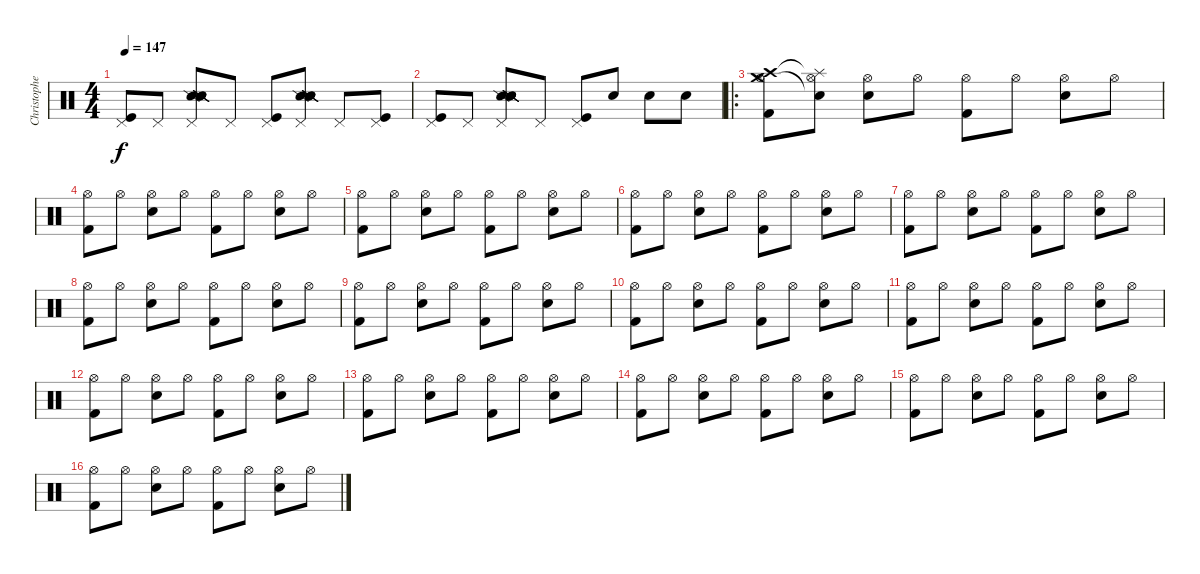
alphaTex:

\track ("Christopher Schneider  (Drums)" "Christophe") {instrument percussion}
\staff {score}
\articulation defaults
\ts (4 4)
\tempo 147
\clef neutral
\ks c
("Pedal Hi-Hat (hit)" "Kick (hit)").8{dy f} "Pedal Hi-Hat (hit)".8 ("Pedal Hi-Hat (hit)" "Snare (side stick) 2" "Snare (side stick) 2" "Snare (side stick) 2" "Snare (side stick) 2" "Snare (side stick) 2").8 "Pedal Hi-Hat (hit)".8 ("Pedal Hi-Hat (hit)" "Kick (hit)").8 ("Pedal Hi-Hat (hit)" "Snare (side stick) 2" "Snare (side stick) 2" "Snare (side stick) 2" "Snare (side stick) 2" "Snare (side stick) 2").8 "Pedal Hi-Hat (hit)".8 ("Pedal Hi-Hat (hit)" "Kick (hit)").8 |
("Pedal Hi-Hat (hit)" "Kick (hit)").8 "Pedal Hi-Hat (hit)".8 ("Pedal Hi-Hat (hit)" "Snare (side stick) 2" "Snare (side stick) 2" "Snare (side stick) 2" "Snare (side stick) 2" "Snare (side stick) 2").8 "Pedal Hi-Hat (hit)".8 ("Pedal Hi-Hat (hit)" "Kick (hit)").8 "Electric Snare (hit)".8 "Electric Snare (hit)".8 "Electric Snare (hit)".8 |
\ro
("Crash high (hit)" "Hi-Hat (open)" "Crash medium (hit)" "Kick (hit) 2").8 ("Splash (hit)"{t} "Hi-Hat (open)" "Snare (hit)"{t}).8 ("Hi-Hat (open)" "Electric Snare (hit)").8 "Hi-Hat (open)".8 ("Hi-Hat (open)" "Kick (hit) 2").8 "Hi-Hat (open)".8 ("Hi-Hat (open)" "Electric Snare (hit)").8 "Hi-Hat (open)".8 |
("Hi-Hat (open)" "Kick (hit) 2").8 "Hi-Hat (open)".8 ("Hi-Hat (open)" "Electric Snare (hit)").8 "Hi-Hat (open)".8 ("Hi-Hat (open)" "Kick (hit) 2").8 "Hi-Hat (open)".8 ("Hi-Hat (open)" "Electric Snare (hit)").8 "Hi-Hat (open)".8 |
("Hi-Hat (open)" "Kick (hit) 2").8 "Hi-Hat (open)".8 ("Hi-Hat (open)" "Electric Snare (hit)").8 "Hi-Hat (open)".8 ("Hi-Hat (open)" "Kick (hit) 2").8 "Hi-Hat (open)".8 ("Hi-Hat (open)" "Electric Snare (hit)").8 "Hi-Hat (open)".8 |
("Hi-Hat (open)" "Kick (hit) 2").8 "Hi-Hat (open)".8 ("Hi-Hat (open)" "Electric Snare (hit)").8 "Hi-Hat (open)".8 ("Hi-Hat (open)" "Kick (hit) 2").8 "Hi-Hat (open)".8 ("Hi-Hat (open)" "Electric Snare (hit)").8 "Hi-Hat (open)".8 |
("Hi-Hat (open)" "Kick (hit) 2").8 "Hi-Hat (open)".8 ("Hi-Hat (open)" "Electric Snare (hit)").8 "Hi-Hat (open)".8 ("Hi-Hat (open)" "Kick (hit) 2").8 "Hi-Hat (open)".8 ("Hi-Hat (open)" "Electric Snare (hit)").8 "Hi-Hat (open)".8 |
("Hi-Hat (open)" "Kick (hit) 2").8 "Hi-Hat (open)".8 ("Hi-Hat (open)" "Electric Snare (hit)").8 "Hi-Hat (open)".8 ("Hi-Hat (open)" "Kick (hit) 2").8 "Hi-Hat (open)".8 ("Hi-Hat (open)" "Electric Snare (hit)").8 "Hi-Hat (open)".8 |
("Hi-Hat (open)" "Kick (hit) 2").8 "Hi-Hat (open)".8 ("Hi-Hat (open)" "Electric Snare (hit)").8 "Hi-Hat (open)".8 ("Hi-Hat (open)" "Kick (hit) 2").8 "Hi-Hat (open)".8 ("Hi-Hat (open)" "Electric Snare (hit)").8 "Hi-Hat (open)".8 |
("Hi-Hat (open)" "Kick (hit) 2").8 "Hi-Hat (open)".8 ("Hi-Hat (open)" "Electric Snare (hit)").8 "Hi-Hat (open)".8 ("Hi-Hat (open)" "Kick (hit) 2").8 "Hi-Hat (open)".8 ("Hi-Hat (open)" "Electric Snare (hit)").8 "Hi-Hat (open)".8 |
("Hi-Hat (open)" "Kick (hit) 2").8 "Hi-Hat (open)".8 ("Hi-Hat (open)" "Electric Snare (hit)").8 "Hi-Hat (open)".8 ("Hi-Hat (open)" "Kick (hit) 2").8 "Hi-Hat (open)".8 ("Hi-Hat (open)" "Electric Snare (hit)").8 "Hi-Hat (open)".8 |
("Hi-Hat (open)" "Kick (hit) 2").8 "Hi-Hat (open)".8 ("Hi-Hat (open)" "Electric Snare (hit)").8 "Hi-Hat (open)".8 ("Hi-Hat (open)" "Kick (hit) 2").8 "Hi-Hat (open)".8 ("Hi-Hat (open)" "Electric Snare (hit)").8 "Hi-Hat (open)".8 |
("Hi-Hat (open)" "Kick (hit) 2").8 "Hi-Hat (open)".8 ("Hi-Hat (open)" "Electric Snare (hit)").8 "Hi-Hat (open)".8 ("Hi-Hat (open)" "Kick (hit) 2").8 "Hi-Hat (open)".8 ("Hi-Hat (open)" "Electric Snare (hit)").8 "Hi-Hat (open)".8 |
("Hi-Hat (open)" "Kick (hit) 2").8 "Hi-Hat (open)".8 ("Hi-Hat (open)" "Electric Snare (hit)").8 "Hi-Hat (open)".8 ("Hi-Hat (open)" "Kick (hit) 2").8 "Hi-Hat (open)".8 ("Hi-Hat (open)" "Electric Snare (hit)").8 "Hi-Hat (open)".8 |
("Hi-Hat (open)" "Kick (hit) 2").8 "Hi-Hat (open)".8 ("Hi-Hat (open)" "Electric Snare (hit)").8 "Hi-Hat (open)".8 ("Hi-Hat (open)" "Kick (hit) 2").8 "Hi-Hat (open)".8 ("Hi-Hat (open)" "Electric Snare (hit)").8 "Hi-Hat (open)".8 |
("Hi-Hat (open)" "Kick (hit) 2").8 "Hi-Hat (open)".8 ("Hi-Hat (open)" "Electric Snare (hit)").8 "Hi-Hat (open)".8 ("Hi-Hat (open)" "Kick (hit) 2").8 "Hi-Hat (open)".8 ("Hi-Hat (open)" "Electric Snare (hit)").8 "Hi-Hat (open)".8
